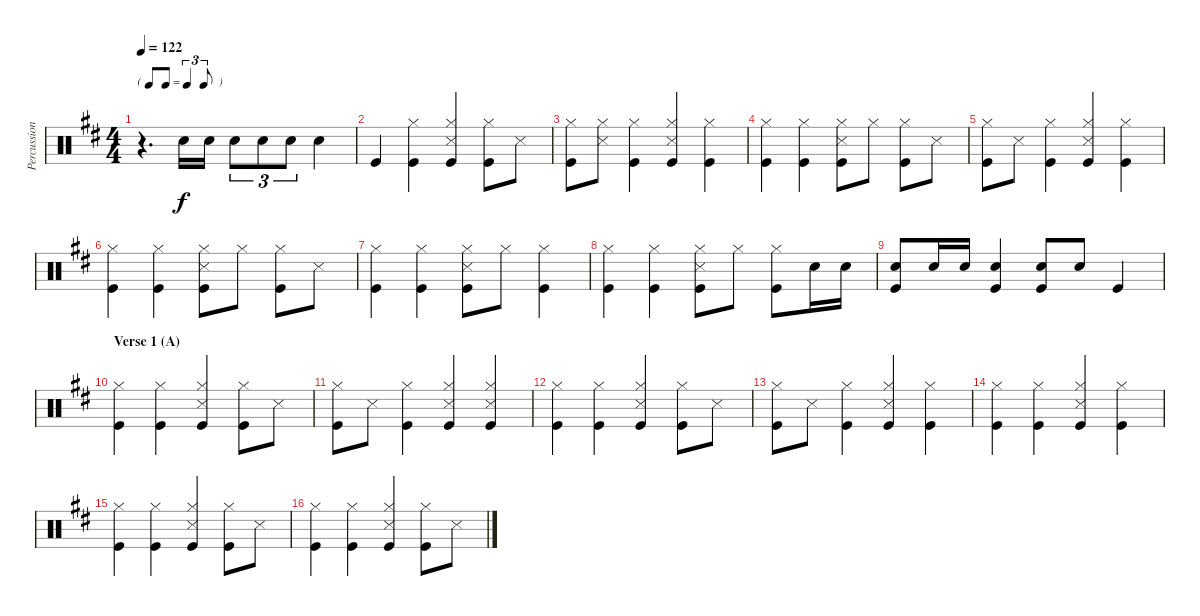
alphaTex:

\track ("Percussion" "Percussion") {instrument percussion}
\staff {score}
\articulation defaults
\ts (4 4)
\tf triplet8th
\tempo 122
\clef neutral
\ks d
r.4{d dy f} "Snare (hit) 2".16 "Snare (hit) 2".16 "Snare (hit) 2".8{tu (3 2)} "Snare (hit) 2".8{tu (3 2)} "Snare (hit) 2".8{tu (3 2)} "Snare (hit) 2".4 |
"Kick (hit)".4 ("Hi-Hat (closed)" "Kick (hit)").4 ("Hi-Hat (closed)" "Snare (side stick) 3" "Kick (hit)").4 ("Hi-Hat (closed)" "Kick (hit)").8 "Snare (side stick) 3".8 |
("Hi-Hat (closed)" "Kick (hit)").8 ("Hi-Hat (closed)" "Snare (side stick) 3").8 ("Hi-Hat (closed)" "Kick (hit)").4 ("Hi-Hat (closed)" "Snare (side stick) 3" "Kick (hit)").4 ("Hi-Hat (closed)" "Kick (hit)").4 |
("Hi-Hat (closed)" "Kick (hit)").4 ("Hi-Hat (closed)" "Kick (hit)").4 ("Hi-Hat (closed)" "Snare (side stick) 3" "Kick (hit)").8 "Hi-Hat (closed)".8 ("Hi-Hat (closed)" "Kick (hit)").8 "Snare (side stick) 3".8 |
("Hi-Hat (closed)" "Kick (hit)").8 "Snare (side stick) 3".8 ("Hi-Hat (closed)" "Kick (hit)").4 ("Hi-Hat (closed)" "Snare (side stick) 3" "Kick (hit)").4 ("Hi-Hat (closed)" "Kick (hit)").4 |
("Hi-Hat (closed)" "Kick (hit)").4 ("Hi-Hat (closed)" "Kick (hit)").4 ("Hi-Hat (closed)" "Snare (side stick) 3" "Kick (hit)").8 "Hi-Hat (closed)".8 ("Hi-Hat (closed)" "Kick (hit)").8 "Snare (side stick) 3".8 |
("Hi-Hat (closed)" "Kick (hit)").4 ("Hi-Hat (closed)" "Kick (hit)").4 ("Hi-Hat (closed)" "Snare (side stick) 3" "Kick (hit)").8 "Hi-Hat (closed)".8 ("Hi-Hat (closed)" "Kick (hit)").4 |
("Hi-Hat (closed)" "Kick (hit)").4 ("Hi-Hat (closed)" "Kick (hit)").4 ("Hi-Hat (closed)" "Snare (side stick) 3" "Kick (hit)").8 "Hi-Hat (closed)".8 ("Hi-Hat (closed)" "Kick (hit)").8 "Snare (hit) 2".16 "Snare (hit) 2".16 |
("Snare (hit) 2" "Kick (hit)").8 "Snare (hit) 2".16 "Snare (hit) 2".16 ("Snare (hit) 2" "Kick (hit)").4 ("Snare (hit) 2" "Kick (hit)").8 "Snare (hit) 2".8 "Kick (hit)".4 |
\section ("" "Verse 1 (A)")
("Hi-Hat (closed)" "Kick (hit)").4 ("Hi-Hat (closed)" "Kick (hit)").4 ("Hi-Hat (closed)" "Snare (side stick) 3" "Kick (hit)").4 ("Hi-Hat (closed)" "Kick (hit)").8 "Snare (side stick) 3".8 |
("Hi-Hat (closed)" "Kick (hit)").8 "Snare (side stick) 3".8 ("Hi-Hat (closed)" "Kick (hit)").4 ("Hi-Hat (closed)" "Snare (side stick) 3" "Kick (hit)").4 ("Hi-Hat (closed)" "Snare (side stick) 3" "Kick (hit)").4 |
("Hi-Hat (closed)" "Kick (hit)").4 ("Hi-Hat (closed)" "Kick (hit)").4 ("Hi-Hat (closed)" "Snare (side stick) 3" "Kick (hit)").4 ("Hi-Hat (closed)" "Kick (hit)").8 "Snare (side stick) 3".8 |
("Hi-Hat (closed)" "Kick (hit)").8 "Snare (side stick) 3".8 ("Hi-Hat (closed)" "Kick (hit)").4 ("Hi-Hat (closed)" "Snare (side stick) 3" "Kick (hit)").4 ("Hi-Hat (closed)" "Kick (hit)").4 |
("Hi-Hat (closed)" "Kick (hit)").4 ("Hi-Hat (closed)" "Kick (hit)").4 ("Hi-Hat (closed)" "Snare (side stick) 3" "Kick (hit)").4 ("Hi-Hat (closed)" "Kick (hit)").4 |
("Hi-Hat (closed)" "Kick (hit)").4 ("Hi-Hat (closed)" "Kick (hit)").4 ("Hi-Hat (closed)" "Snare (side stick) 3" "Kick (hit)").4 ("Hi-Hat (closed)" "Kick (hit)").8 "Snare (side stick) 3".8 |
("Hi-Hat (closed)" "Kick (hit)").4 ("Hi-Hat (closed)" "Kick (hit)").4 ("Hi-Hat (closed)" "Snare (side stick) 3" "Kick (hit)").4 ("Hi-Hat (closed)" "Kick (hit)").8 "Snare (side stick) 3".8
